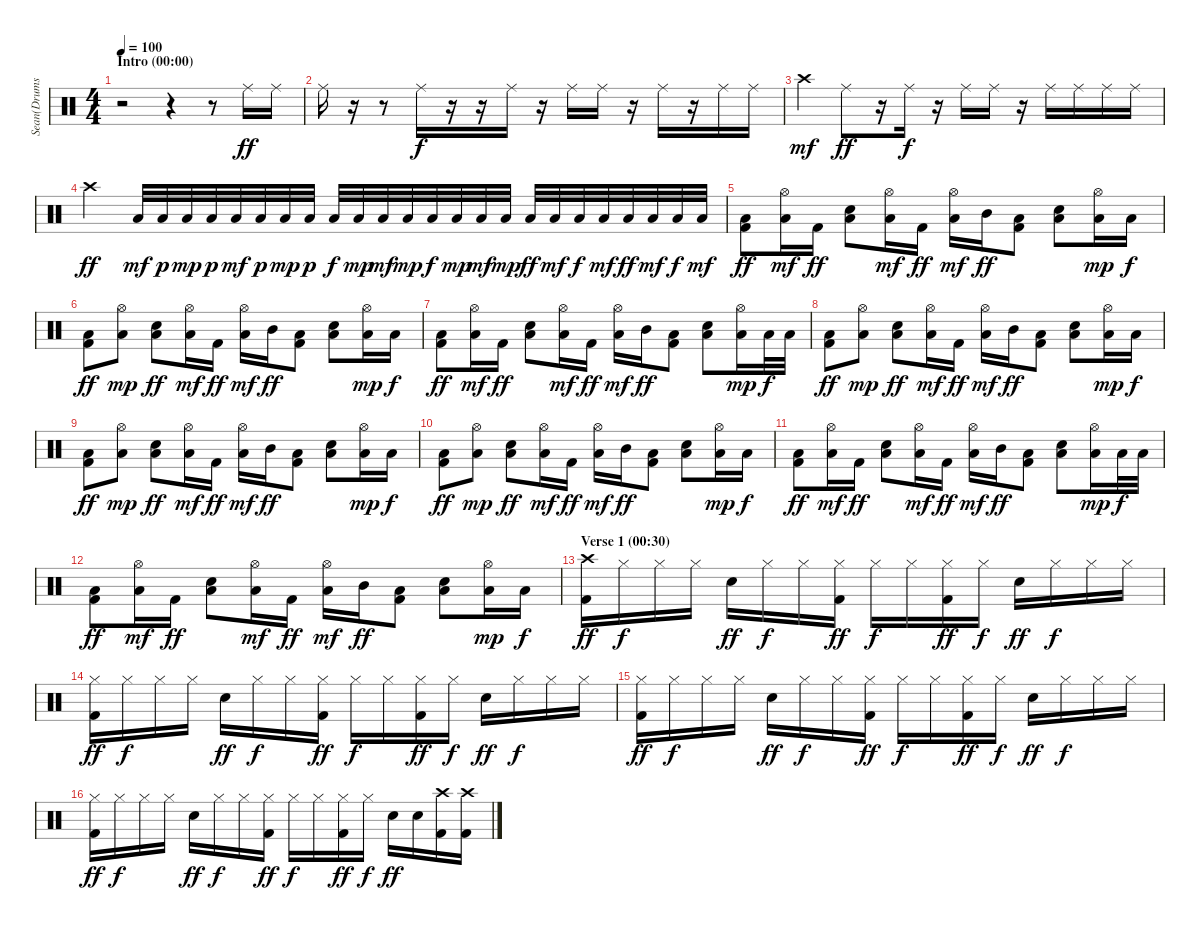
\track ("Sean(Drums)" "Sean(Drums") {instrument percussion}
\staff {score}
\articulation defaults
\ts (4 4)
\section ("" "Intro (00:00)")
\tempo 100
\clef neutral
\ks c
r.2{dy ff} r.4 r.8 "Ride (middle)".16 "Ride (middle)".16 |
"Ride (middle)".16 r.16 r.8 "Ride (middle)".16{dy f} r.16 r.16 "Ride (middle)".16 r.16 "Ride (middle)".16 "Ride (middle)".16 r.16 "Ride (middle)".16 r.16 "Ride (middle)".16 "Ride (middle)".16 |
"Crash high (hit)".4{dy mf} "Ride (middle)".8{dy ff} r.16 "Ride (middle)".16{dy f} r.16 "Ride (middle)".16 "Ride (middle)".16 r.16 "Ride (middle)".16 "Ride (middle)".16 "Ride (middle)".16 "Ride (middle)".16 |
"Crash high (hit)".4{dy ff} "Low Floor Tom (hit)".32{dy mf} "Low Floor Tom (hit)".32{dy p} "Low Floor Tom (hit)".32{dy mp} "Low Floor Tom (hit)".32{dy p} "Low Floor Tom (hit)".32{dy mf} "Low Floor Tom (hit)".32{dy p} "Low Floor Tom (hit)".32{dy mp} "Low Floor Tom (hit)".32{dy p} "Low Floor Tom (hit)".32{dy f} "Low Floor Tom (hit)".32{dy mp} "Low Floor Tom (hit)".32{dy mf} "Low Floor Tom (hit)".32{dy mp} "Low Floor Tom (hit)".32{dy f} "Low Floor Tom (hit)".32{dy mp} "Low Floor Tom (hit)".32{dy mf} "Low Floor Tom (hit)".32{dy mp} "Low Floor Tom (hit)".32{dy ff} "Low Floor Tom (hit)".32{dy mf} "Low Floor Tom (hit)".32{dy f} "Low Floor Tom (hit)".32{dy mf} "Low Floor Tom (hit)".32{dy ff} "Low Floor Tom (hit)".32{dy mf} "Low Floor Tom (hit)".32{dy f} "Low Floor Tom (hit)".32{dy mf} |
("Low Tom (hit)" "Kick (hit) 2").8{dy ff} ("Hi-Hat (open)" "Low Tom (hit)").16{dy mf} "Kick (hit) 2".16{dy ff} ("Low Tom (hit)" "Electric Snare (hit)").8 ("Hi-Hat (open)" "Low Tom (hit)").16{dy mf} "Kick (hit) 2".16{dy ff} ("Hi-Hat (open)" "Low Tom (hit)").16{dy mf} "Mid Tom (hit)".16{dy ff} ("Low Tom (hit)" "Kick (hit) 2").8 ("Low Tom (hit)" "Electric Snare (hit)").8 ("Hi-Hat (open)" "Low Tom (hit)").16{dy mp} "Low Tom (hit)".16{dy f} |
("Low Tom (hit)" "Kick (hit) 2").8{dy ff} ("Hi-Hat (open)" "Low Tom (hit)").8{dy mp} ("Low Tom (hit)" "Electric Snare (hit)").8{dy ff} ("Hi-Hat (open)" "Low Tom (hit)").16{dy mf} "Kick (hit) 2".16{dy ff} ("Hi-Hat (open)" "Low Tom (hit)").16{dy mf} "Mid Tom (hit)".16{dy ff} ("Low Tom (hit)" "Kick (hit) 2").8 ("Low Tom (hit)" "Electric Snare (hit)").8 ("Hi-Hat (open)" "Low Tom (hit)").16{dy mp} "Low Tom (hit)".16{dy f} |
("Low Tom (hit)" "Kick (hit) 2").8{dy ff} ("Hi-Hat (open)" "Low Tom (hit)").16{dy mf} "Kick (hit) 2".16{dy ff} ("Low Tom (hit)" "Electric Snare (hit)").8 ("Hi-Hat (open)" "Low Tom (hit)").16{dy mf} "Kick (hit) 2".16{dy ff} ("Hi-Hat (open)" "Low Tom (hit)").16{dy mf} "Mid Tom (hit)".16{dy ff} ("Low Tom (hit)" "Kick (hit) 2").8 ("Low Tom (hit)" "Electric Snare (hit)").8 ("Hi-Hat (open)" "Low Tom (hit)").16{dy mp} "Low Tom (hit)".32{dy f} "Low Tom (hit)".32 |
("Low Tom (hit)" "Kick (hit) 2").8{dy ff} ("Hi-Hat (open)" "Low Tom (hit)").8{dy mp} ("Low Tom (hit)" "Electric Snare (hit)").8{dy ff} ("Hi-Hat (open)" "Low Tom (hit)").16{dy mf} "Kick (hit) 2".16{dy ff} ("Hi-Hat (open)" "Low Tom (hit)").16{dy mf} "Mid Tom (hit)".16{dy ff} ("Low Tom (hit)" "Kick (hit) 2").8 ("Low Tom (hit)" "Electric Snare (hit)").8 ("Hi-Hat (open)" "Low Tom (hit)").16{dy mp} "Low Tom (hit)".16{dy f} |
("Low Tom (hit)" "Kick (hit) 2").8{dy ff} ("Hi-Hat (open)" "Low Tom (hit)").8{dy mp} ("Low Tom (hit)" "Electric Snare (hit)").8{dy ff} ("Hi-Hat (open)" "Low Tom (hit)").16{dy mf} "Kick (hit) 2".16{dy ff} ("Hi-Hat (open)" "Low Tom (hit)").16{dy mf} "Mid Tom (hit)".16{dy ff} ("Low Tom (hit)" "Kick (hit) 2").8 ("Low Tom (hit)" "Electric Snare (hit)").8 ("Hi-Hat (open)" "Low Tom (hit)").16{dy mp} "Low Tom (hit)".16{dy f} |
("Low Tom (hit)" "Kick (hit) 2").8{dy ff} ("Hi-Hat (open)" "Low Tom (hit)").8{dy mp} ("Low Tom (hit)" "Electric Snare (hit)").8{dy ff} ("Hi-Hat (open)" "Low Tom (hit)").16{dy mf} "Kick (hit) 2".16{dy ff} ("Hi-Hat (open)" "Low Tom (hit)").16{dy mf} "Mid Tom (hit)".16{dy ff} ("Low Tom (hit)" "Kick (hit) 2").8 ("Low Tom (hit)" "Electric Snare (hit)").8 ("Hi-Hat (open)" "Low Tom (hit)").16{dy mp} "Low Tom (hit)".16{dy f} |
("Low Tom (hit)" "Kick (hit) 2").8{dy ff} ("Hi-Hat (open)" "Low Tom (hit)").16{dy mf} "Kick (hit) 2".16{dy ff} ("Low Tom (hit)" "Electric Snare (hit)").8 ("Hi-Hat (open)" "Low Tom (hit)").16{dy mf} "Kick (hit) 2".16{dy ff} ("Hi-Hat (open)" "Low Tom (hit)").16{dy mf} "Mid Tom (hit)".16{dy ff} ("Low Tom (hit)" "Kick (hit) 2").8 ("Low Tom (hit)" "Electric Snare (hit)").8 ("Hi-Hat (open)" "Low Tom (hit)").16{dy mp} "Low Tom (hit)".32{dy f} "Low Tom (hit)".32 |
("Low Tom (hit)" "Kick (hit) 2").8{dy ff} ("Hi-Hat (open)" "Low Tom (hit)").16{dy mf} "Kick (hit) 2".16{dy ff} ("Low Tom (hit)" "Electric Snare (hit)").8 ("Hi-Hat (open)" "Low Tom (hit)").16{dy mf} "Kick (hit) 2".16{dy ff} ("Hi-Hat (open)" "Low Tom (hit)").16{dy mf} "Mid Tom (hit)".16{dy ff} ("Low Tom (hit)" "Kick (hit) 2").8 ("Low Tom (hit)" "Electric Snare (hit)").8 ("Hi-Hat (open)" "Low Floor Tom (hit)").16{dy mp} "Low Floor Tom (hit)".16{dy f} |
\section ("" "Verse 1 (00:30)")
("Crash high (hit)" "Kick (hit) 2").16{dy ff} "Hi-Hat (closed)".16{dy f} "Hi-Hat (closed)".16 "Hi-Hat (closed)".16 "Electric Snare (hit)".16{dy ff} "Hi-Hat (closed)".16{dy f} "Hi-Hat (closed)".16 ("Hi-Hat (closed)" "Kick (hit) 2").16{dy ff} "Hi-Hat (closed)".16{dy f} "Hi-Hat (closed)".16 ("Hi-Hat (closed)" "Kick (hit) 2").16{dy ff} "Hi-Hat (closed)".16{dy f} "Electric Snare (hit)".16{dy ff} "Hi-Hat (closed)".16{dy f} "Hi-Hat (closed)".16 "Hi-Hat (closed)".16 |
("Hi-Hat (closed)" "Kick (hit) 2").16{dy ff} "Hi-Hat (closed)".16{dy f} "Hi-Hat (closed)".16 "Hi-Hat (closed)".16 "Electric Snare (hit)".16{dy ff} "Hi-Hat (closed)".16{dy f} "Hi-Hat (closed)".16 ("Hi-Hat (closed)" "Kick (hit) 2").16{dy ff} "Hi-Hat (closed)".16{dy f} "Hi-Hat (closed)".16 ("Hi-Hat (closed)" "Kick (hit) 2").16{dy ff} "Hi-Hat (closed)".16{dy f} "Electric Snare (hit)".16{dy ff} "Hi-Hat (closed)".16{dy f} "Hi-Hat (closed)".16 "Hi-Hat (closed)".16 |
("Hi-Hat (closed)" "Kick (hit) 2").16{dy ff} "Hi-Hat (closed)".16{dy f} "Hi-Hat (closed)".16 "Hi-Hat (closed)".16 "Electric Snare (hit)".16{dy ff} "Hi-Hat (closed)".16{dy f} "Hi-Hat (closed)".16 ("Hi-Hat (closed)" "Kick (hit) 2").16{dy ff} "Hi-Hat (closed)".16{dy f} "Hi-Hat (closed)".16 ("Hi-Hat (closed)" "Kick (hit) 2").16{dy ff} "Hi-Hat (closed)".16{dy f} "Electric Snare (hit)".16{dy ff} "Hi-Hat (closed)".16{dy f} "Hi-Hat (closed)".16 "Hi-Hat (closed)".16 |
("Hi-Hat (closed)" "Kick (hit) 2").16{dy ff} "Hi-Hat (closed)".16{dy f} "Hi-Hat (closed)".16 "Hi-Hat (closed)".16 "Electric Snare (hit)".16{dy ff} "Hi-Hat (closed)".16{dy f} "Hi-Hat (closed)".16 ("Hi-Hat (closed)" "Kick (hit) 2").16{dy ff} "Hi-Hat (closed)".16{dy f} "Hi-Hat (closed)".16 ("Hi-Hat (closed)" "Kick (hit) 2").16{dy ff} "Hi-Hat (closed)".16{dy f} "Electric Snare (hit)".16{dy ff} "Electric Snare (hit)".16 ("Crash high (hit)" "Kick (hit) 2").16 ("Crash high (hit)" "Kick (hit) 2").16
